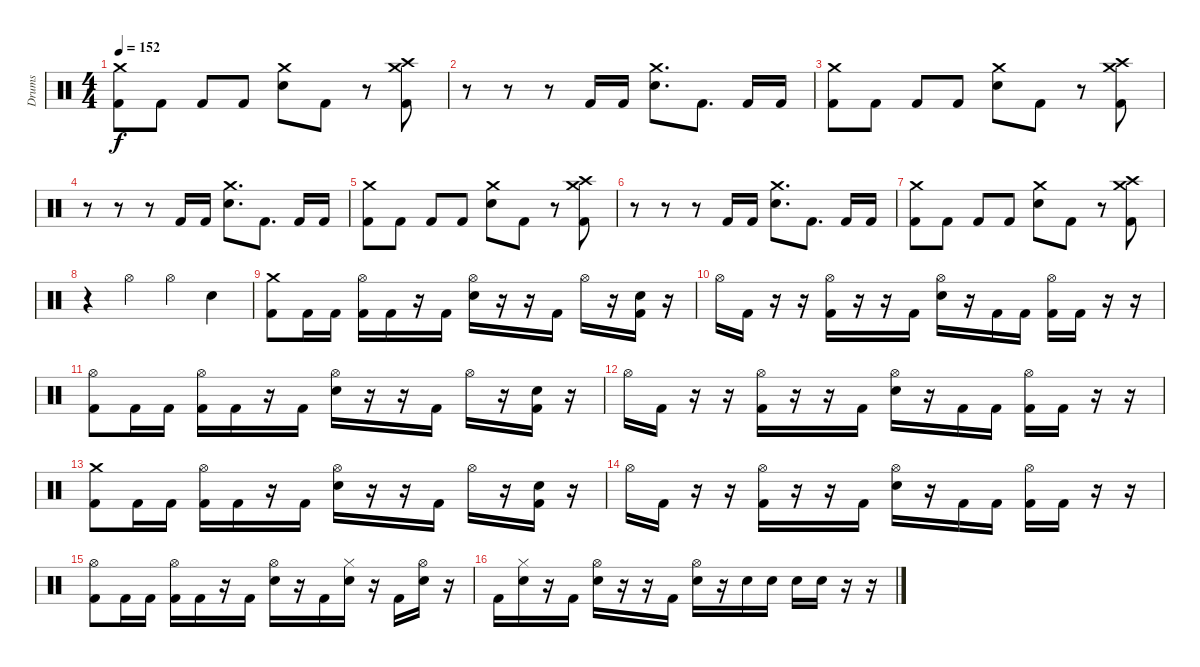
\track ("Drums" "Drums") {instrument percussion}
\staff {score}
\articulation defaults
\ts (4 4)
\tempo 152
\clef neutral
\ks c
("Crash medium (hit)" "Kick (hit) 2").8{dy f} "Kick (hit) 2".8 "Kick (hit) 2".8 "Kick (hit) 2".8 ("Crash medium (hit)" "Electric Snare (hit)").8 "Kick (hit) 2".8 r.8 ("Crash high (hit)" "Crash medium (hit)" "Kick (hit) 2").8 |
r.8 r.8 r.8 "Kick (hit) 2".16 "Kick (hit) 2".16 ("Crash medium (hit)" "Electric Snare (hit)").8{d} "Kick (hit) 2".8{d} "Kick (hit) 2".16 "Kick (hit) 2".16 |
("Crash medium (hit)" "Kick (hit) 2").8 "Kick (hit) 2".8 "Kick (hit) 2".8 "Kick (hit) 2".8 ("Crash medium (hit)" "Electric Snare (hit)").8 "Kick (hit) 2".8 r.8 ("Crash high (hit)" "Crash medium (hit)" "Kick (hit) 2").8 |
r.8 r.8 r.8 "Kick (hit) 2".16 "Kick (hit) 2".16 ("Crash medium (hit)" "Electric Snare (hit)").8{d} "Kick (hit) 2".8{d} "Kick (hit) 2".16 "Kick (hit) 2".16 |
("Crash medium (hit)" "Kick (hit) 2").8 "Kick (hit) 2".8 "Kick (hit) 2".8 "Kick (hit) 2".8 ("Crash medium (hit)" "Electric Snare (hit)").8 "Kick (hit) 2".8 r.8 ("Crash high (hit)" "Crash medium (hit)" "Kick (hit) 2").8 |
r.8 r.8 r.8 "Kick (hit) 2".16 "Kick (hit) 2".16 ("Crash medium (hit)" "Electric Snare (hit)").8{d} "Kick (hit) 2".8{d} "Kick (hit) 2".16 "Kick (hit) 2".16 |
("Crash medium (hit)" "Kick (hit) 2").8 "Kick (hit) 2".8 "Kick (hit) 2".8 "Kick (hit) 2".8 ("Crash medium (hit)" "Electric Snare (hit)").8 "Kick (hit) 2".8 r.8 ("Crash high (hit)" "Crash medium (hit)" "Kick (hit) 2").8 |
r.4 "Hi-Hat (open)".4 "Hi-Hat (open)".4 "Electric Snare (hit)".4 |
("Crash medium (hit)" "Kick (hit) 2").8 "Kick (hit) 2".16 "Kick (hit) 2".16 ("Hi-Hat (open)" "Kick (hit) 2").16 "Kick (hit) 2".16 r.16 "Kick (hit) 2".16 ("Hi-Hat (open)" "Electric Snare (hit)").16 r.16 r.16 "Kick (hit) 2".16 "Hi-Hat (open)".16 r.16 ("Electric Snare (hit)" "Kick (hit) 2").16 r.16 |
"Hi-Hat (open)".16 "Kick (hit) 2".16 r.16 r.16 ("Hi-Hat (open)" "Kick (hit) 2").16 r.16 r.16 "Kick (hit) 2".16 ("Hi-Hat (open)" "Electric Snare (hit)").16 r.16 "Kick (hit) 2".16 "Kick (hit) 2".16 ("Hi-Hat (open)" "Kick (hit) 2").16 "Kick (hit) 2".16 r.16 r.16 |
("Hi-Hat (open)" "Kick (hit) 2").8 "Kick (hit) 2".16 "Kick (hit) 2".16 ("Hi-Hat (open)" "Kick (hit) 2").16 "Kick (hit) 2".16 r.16 "Kick (hit) 2".16 ("Hi-Hat (open)" "Electric Snare (hit)").16 r.16 r.16 "Kick (hit) 2".16 "Hi-Hat (open)".16 r.16 ("Electric Snare (hit)" "Kick (hit) 2").16 r.16 |
"Hi-Hat (open)".16 "Kick (hit) 2".16 r.16 r.16 ("Hi-Hat (open)" "Kick (hit) 2").16 r.16 r.16 "Kick (hit) 2".16 ("Hi-Hat (open)" "Electric Snare (hit)").16 r.16 "Kick (hit) 2".16 "Kick (hit) 2".16 ("Hi-Hat (open)" "Kick (hit) 2").16 "Kick (hit) 2".16 r.16 r.16 |
("Crash medium (hit)" "Kick (hit) 2").8 "Kick (hit) 2".16 "Kick (hit) 2".16 ("Hi-Hat (open)" "Kick (hit) 2").16 "Kick (hit) 2".16 r.16 "Kick (hit) 2".16 ("Hi-Hat (open)" "Electric Snare (hit)").16 r.16 r.16 "Kick (hit) 2".16 "Hi-Hat (open)".16 r.16 ("Electric Snare (hit)" "Kick (hit) 2").16 r.16 |
"Hi-Hat (open)".16 "Kick (hit) 2".16 r.16 r.16 ("Hi-Hat (open)" "Kick (hit) 2").16 r.16 r.16 "Kick (hit) 2".16 ("Hi-Hat (open)" "Electric Snare (hit)").16 r.16 "Kick (hit) 2".16 "Kick (hit) 2".16 ("Hi-Hat (open)" "Kick (hit) 2").16 "Kick (hit) 2".16 r.16 r.16 |
("Hi-Hat (open)" "Kick (hit) 2").8 "Kick (hit) 2".16 "Kick (hit) 2".16 ("Hi-Hat (open)" "Kick (hit) 2").16 "Kick (hit) 2".16 r.16 "Kick (hit) 2".16 ("Hi-Hat (open)" "Electric Snare (hit)").16 r.16 "Kick (hit) 2".16 ("Hi-Hat (closed)" "Electric Snare (hit)").16 r.16 "Kick (hit) 2".16 ("Hi-Hat (open)" "Electric Snare (hit)").16 r.16 |
"Kick (hit) 2".16 ("Hi-Hat (closed)" "Electric Snare (hit)").16 r.16 "Kick (hit) 2".16 ("Hi-Hat (open)" "Electric Snare (hit)").16 r.16 r.16 "Kick (hit) 2".16 ("Hi-Hat (open)" "Electric Snare (hit)").16 r.16 "Electric Snare (hit)".16 "Electric Snare (hit)".16 "Electric Snare (hit)".16 "Electric Snare (hit)".16 r.16 r.16
